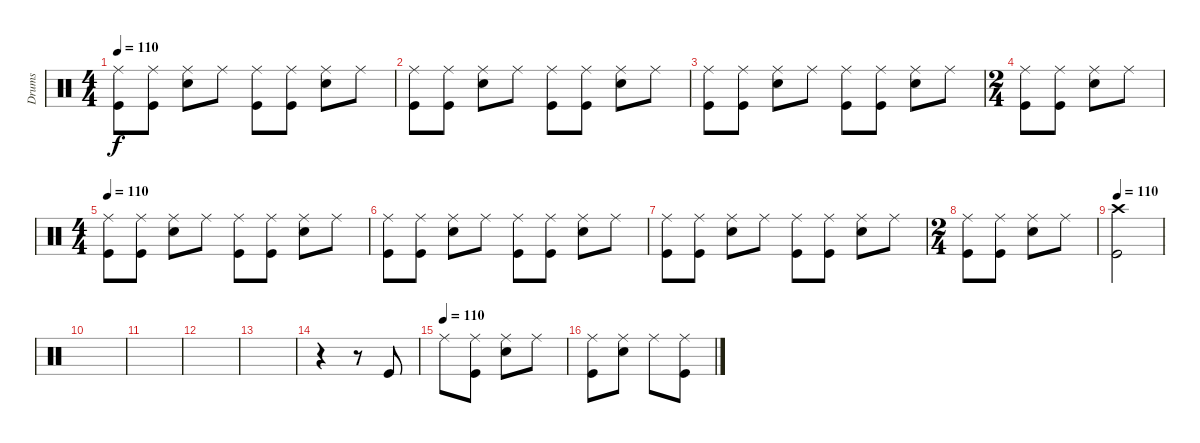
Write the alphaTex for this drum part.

\track ("Drums" "Drums") {instrument percussion}
\staff {score}
\articulation defaults
\ts (4 4)
\tempo 110
\clef neutral
\ks c
("Ride (middle)" "Kick (hit)").8{dy f} ("Ride (middle)" "Kick (hit)").8 ("Ride (middle)" "Snare (hit) 2").8 "Ride (middle)".8 ("Ride (middle)" "Kick (hit)").8 ("Ride (middle)" "Kick (hit)").8 ("Ride (middle)" "Snare (hit) 2").8 "Ride (middle)".8 |
("Ride (middle)" "Kick (hit)").8 ("Ride (middle)" "Kick (hit)").8 ("Ride (middle)" "Snare (hit) 2").8 "Ride (middle)".8 ("Ride (middle)" "Kick (hit)").8 ("Ride (middle)" "Kick (hit)").8 ("Ride (middle)" "Snare (hit) 2").8 "Ride (middle)".8 |
("Ride (middle)" "Kick (hit)").8 ("Ride (middle)" "Kick (hit)").8 ("Ride (middle)" "Snare (hit) 2").8 "Ride (middle)".8 ("Ride (middle)" "Kick (hit)").8 ("Ride (middle)" "Kick (hit)").8 ("Ride (middle)" "Snare (hit) 2").8 "Ride (middle)".8 |
\ts (2 4)
("Ride (middle)" "Kick (hit)").8 ("Ride (middle)" "Kick (hit)").8 ("Ride (middle)" "Snare (hit) 2").8 "Ride (middle)".8 |
\ts (4 4)
\tempo 110
("Ride (middle)" "Kick (hit)").8 ("Ride (middle)" "Kick (hit)").8 ("Ride (middle)" "Snare (hit) 2").8 "Ride (middle)".8 ("Ride (middle)" "Kick (hit)").8 ("Ride (middle)" "Kick (hit)").8 ("Ride (middle)" "Snare (hit) 2").8 "Ride (middle)".8 |
("Ride (middle)" "Kick (hit)").8 ("Ride (middle)" "Kick (hit)").8 ("Ride (middle)" "Snare (hit) 2").8 "Ride (middle)".8 ("Ride (middle)" "Kick (hit)").8 ("Ride (middle)" "Kick (hit)").8 ("Ride (middle)" "Snare (hit) 2").8 "Ride (middle)".8 |
("Ride (middle)" "Kick (hit)").8 ("Ride (middle)" "Kick (hit)").8 ("Ride (middle)" "Snare (hit) 2").8 "Ride (middle)".8 ("Ride (middle)" "Kick (hit)").8 ("Ride (middle)" "Kick (hit)").8 ("Ride (middle)" "Snare (hit) 2").8 "Ride (middle)".8 |
\ts (2 4)
("Ride (middle)" "Kick (hit)").8 ("Ride (middle)" "Kick (hit)").8 ("Ride (middle)" "Snare (hit) 2").8 "Ride (middle)".8 |
\section ("" "")
\tempo 110
("Crash high (hit)" "Kick (hit)").2 |
|
|
|
|
r.4 r.8 "Kick (hit)".8 |
\tempo (110)
"Ride (middle)".8 ("Ride (middle)" "Kick (hit)").8 ("Ride (middle)" "Snare (hit) 2").8 "Ride (middle)".8 |
("Ride (middle)" "Kick (hit)").8 ("Ride (middle)" "Snare (hit) 2").8 "Ride (middle)".8 ("Ride (middle)" "Kick (hit)").8
